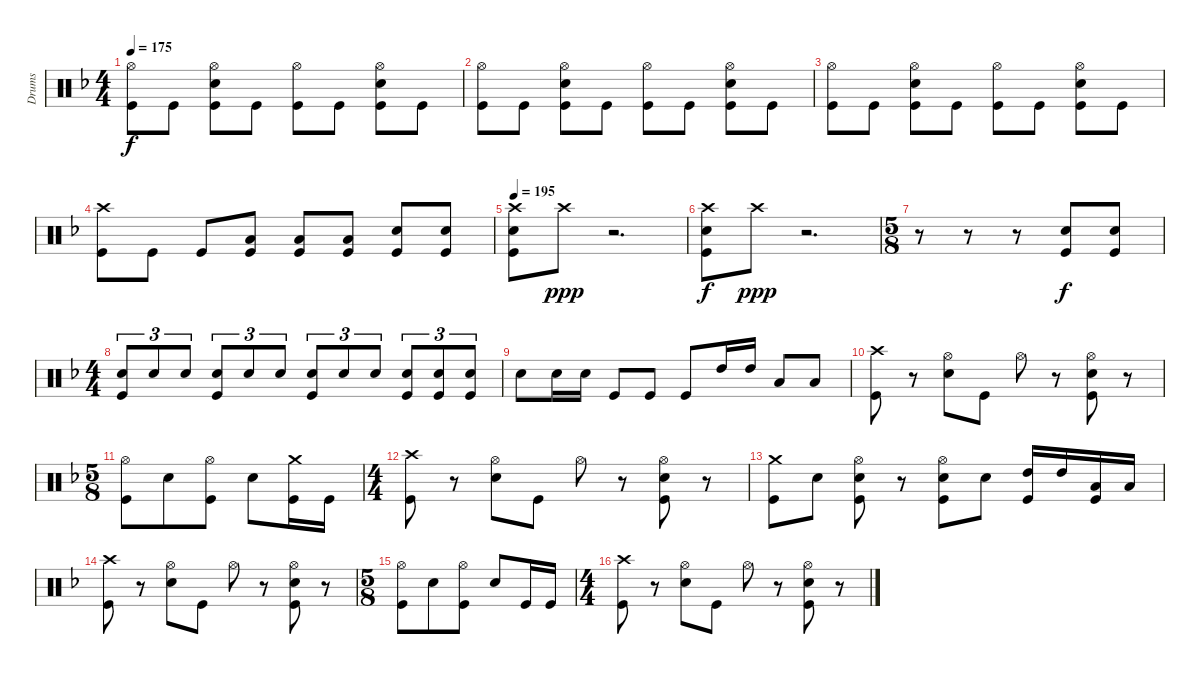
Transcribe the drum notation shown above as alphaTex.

\track ("Drums" "Drums") {instrument percussion}
\staff {score}
\articulation defaults
\ts (4 4)
\tempo 175
\clef neutral
\ks dminor
("Hi-Hat (open)" "Kick (hit)").8{dy f} "Kick (hit)".8 ("Hi-Hat (open)" "Electric Snare (hit)" "Kick (hit)").8 "Kick (hit)".8 ("Hi-Hat (open)" "Kick (hit)").8 "Kick (hit)".8 ("Hi-Hat (open)" "Electric Snare (hit)" "Kick (hit)").8 "Kick (hit)".8 |
("Hi-Hat (open)" "Kick (hit)").8 "Kick (hit)".8 ("Hi-Hat (open)" "Electric Snare (hit)" "Kick (hit)").8 "Kick (hit)".8 ("Hi-Hat (open)" "Kick (hit)").8 "Kick (hit)".8 ("Hi-Hat (open)" "Electric Snare (hit)" "Kick (hit)").8 "Kick (hit)".8 |
("Hi-Hat (open)" "Kick (hit)").8 "Kick (hit)".8 ("Hi-Hat (open)" "Electric Snare (hit)" "Kick (hit)").8 "Kick (hit)".8 ("Hi-Hat (open)" "Kick (hit)").8 "Kick (hit)".8 ("Hi-Hat (open)" "Electric Snare (hit)" "Kick (hit)").8 "Kick (hit)".8 |
("Crash high (hit)" "Kick (hit)").8 "Kick (hit)".8 "Kick (hit)".8 ("Low Floor Tom (hit)" "Kick (hit)").8 ("Low Floor Tom (hit)" "Kick (hit)").8 ("Low Floor Tom (hit)" "Kick (hit)").8 ("Electric Snare (hit)" "Kick (hit)").8 ("Electric Snare (hit)" "Kick (hit)").8 |
\tempo 195
("Crash high (hit)" "Electric Snare (hit)" "Kick (hit)").8 "Crash high (hit)".8{dy ppp} r.2{d} |
("Crash high (hit)" "Electric Snare (hit)" "Kick (hit)").8{dy f} "Crash high (hit)".8{dy ppp} r.2{d} |
\ts (5 8)
r.8 r.8 r.8 ("Electric Snare (hit)" "Kick (hit)").8{dy f} ("Electric Snare (hit)" "Kick (hit)").8 |
\ts (4 4)
("Electric Snare (hit)" "Kick (hit)").8{tu (3 2) volume 0} "Electric Snare (hit)".8{tu (3 2) volume 16} "Electric Snare (hit)".8{tu (3 2)} ("Electric Snare (hit)" "Kick (hit)").8{tu (3 2)} "Electric Snare (hit)".8{tu (3 2)} "Electric Snare (hit)".8{tu (3 2)} ("Electric Snare (hit)" "Kick (hit)").8{tu (3 2)} "Electric Snare (hit)".8{tu (3 2)} "Electric Snare (hit)".8{tu (3 2)} ("Electric Snare (hit)" "Kick (hit)").8{tu (3 2)} ("Electric Snare (hit)" "Kick (hit)").8{tu (3 2)} ("Electric Snare (hit)" "Kick (hit)").8{tu (3 2)} |
\ks f "Electric Snare (hit)".8 "Electric Snare (hit)".16 "Electric Snare (hit)".16 "Kick (hit)".8 "Kick (hit)".8 "Kick (hit)".8 "High Tom (hit)".16 "High Tom (hit)".16 "Low Tom (hit)".8 "Low Tom (hit)".8
|
("Crash high (hit)" "Kick (hit)").8 r.8 ("Hi-Hat (open)" "Electric Snare (hit)").8 "Kick (hit)".8 "Hi-Hat (open)".8 r.8 ("Hi-Hat (open)" "Electric Snare (hit)" "Kick (hit)").8 r.8 |
\ts (5 8)
("Hi-Hat (open)" "Kick (hit)").8 "Electric Snare (hit)".8 ("Hi-Hat (open)" "Kick (hit)").8 "Electric Snare (hit)".8 ("Crash medium (hit)" "Kick (hit)").16 "Kick (hit)".16 |
\ts (4 4)
("Crash high (hit)" "Kick (hit)").8 r.8 ("Hi-Hat (open)" "Electric Snare (hit)").8 "Kick (hit)".8 "Hi-Hat (open)".8 r.8 ("Hi-Hat (open)" "Electric Snare (hit)" "Kick (hit)").8 r.8 |
("Crash medium (hit)" "Kick (hit)").8 "Electric Snare (hit)".8 ("Hi-Hat (open)" "Electric Snare (hit)" "Kick (hit)").8 r.8 ("Hi-Hat (open)" "Electric Snare (hit)" "Kick (hit)").8 "Electric Snare (hit)".8 ("High Tom (hit)" "Kick (hit)").16 "High Tom (hit)".16 ("Low Tom (hit)" "Kick (hit)").16 "Low Tom (hit)".16 |
("Crash high (hit)" "Kick (hit)").8 r.8 ("Hi-Hat (open)" "Electric Snare (hit)").8 "Kick (hit)".8 "Hi-Hat (open)".8 r.8 ("Hi-Hat (open)" "Electric Snare (hit)" "Kick (hit)").8 r.8 |
\ts (5 8)
("Hi-Hat (open)" "Kick (hit)").8 "Electric Snare (hit)".8 ("Hi-Hat (open)" "Kick (hit)").8 "Electric Snare (hit)".8 "Kick (hit)".16 "Kick (hit)".16 |
\ts (4 4)
("Crash high (hit)" "Kick (hit)").8 r.8 ("Hi-Hat (open)" "Electric Snare (hit)").8 "Kick (hit)".8 "Hi-Hat (open)".8 r.8 ("Hi-Hat (open)" "Electric Snare (hit)" "Kick (hit)").8 r.8
